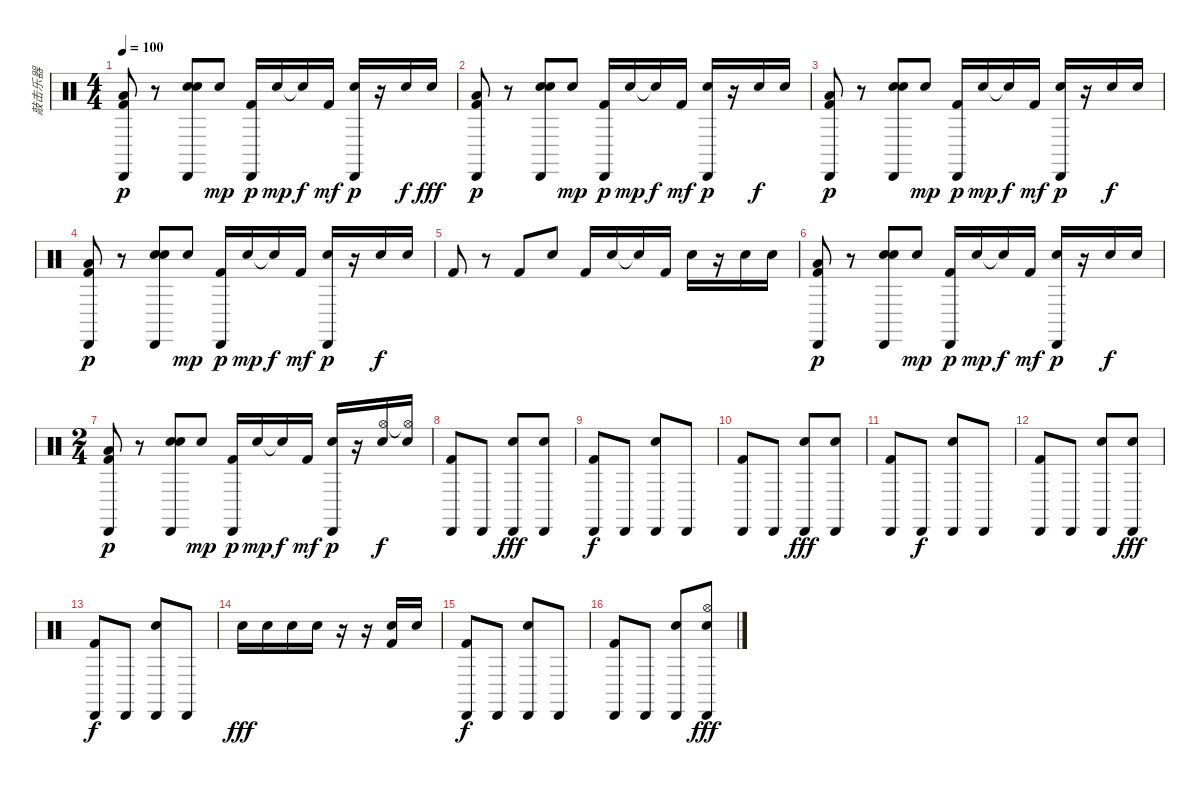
\track ("敲击乐器" "敲击乐器") {instrument percussion}
\staff {score}
\articulation defaults
\ts (4 4)
\tempo 100
\clef neutral
\ks c
("Kick (hit) 2" "Low Floor Tom (hit)" "Cabasa (hit)").8{dy p} r.8 ("Snare (hit) 2" "Electric Snare (hit)" "Cabasa (hit)").8 "Snare (hit) 2".8{dy mp} ("Kick (hit) 2" "Cabasa (hit)").16{dy p} "Snare (hit) 2".16{dy mp} "Snare (hit) 2"{t}.16{dy f} "Kick (hit) 2".16{dy mf} ("Snare (hit) 2" "Cabasa (hit)").16{dy p} r.16 "Electric Snare (hit)".16{dy f} "Snare (hit) 2".16{dy fff} |
("Kick (hit) 2" "Low Floor Tom (hit)" "Cabasa (hit)").8{dy p} r.8 ("Snare (hit) 2" "Electric Snare (hit)" "Cabasa (hit)").8 "Snare (hit) 2".8{dy mp} ("Kick (hit) 2" "Cabasa (hit)").16{dy p} "Snare (hit) 2".16{dy mp} "Snare (hit) 2"{t}.16{dy f} "Kick (hit) 2".16{dy mf} ("Snare (hit) 2" "Cabasa (hit)").16{dy p} r.16 "Electric Snare (hit)".16{dy f} "Snare (hit) 2".16 |
("Kick (hit) 2" "Low Floor Tom (hit)" "Cabasa (hit)").8{dy p} r.8 ("Snare (hit) 2" "Electric Snare (hit)" "Cabasa (hit)").8 "Snare (hit) 2".8{dy mp} ("Kick (hit) 2" "Cabasa (hit)").16{dy p} "Snare (hit) 2".16{dy mp} "Snare (hit) 2"{t}.16{dy f} "Kick (hit) 2".16{dy mf} ("Snare (hit) 2" "Cabasa (hit)").16{dy p} r.16 "Electric Snare (hit)".16{dy f} "Snare (hit) 2".16 |
("Kick (hit) 2" "Low Floor Tom (hit)" "Cabasa (hit)").8{dy p} r.8 ("Snare (hit) 2" "Electric Snare (hit)" "Cabasa (hit)").8 "Snare (hit) 2".8{dy mp} ("Kick (hit) 2" "Cabasa (hit)").16{dy p} "Snare (hit) 2".16{dy mp} "Snare (hit) 2"{t}.16{dy f} "Kick (hit) 2".16{dy mf} ("Snare (hit) 2" "Cabasa (hit)").16{dy p} r.16 "Electric Snare (hit)".16{dy f} "Snare (hit) 2".16 |
"Kick (hit) 2".8 r.8 "Kick (hit) 2".8 "Snare (hit) 2".8 "Kick (hit) 2".16 "Snare (hit) 2".16 "Snare (hit) 2"{t}.16 "Kick (hit) 2".16 "Snare (hit) 2".16 r.16 "Electric Snare (hit)".16 "Snare (hit) 2".16 |
("Kick (hit) 2" "Low Floor Tom (hit)" "Cabasa (hit)").8{dy p} r.8 ("Snare (hit) 2" "Electric Snare (hit)" "Cabasa (hit)").8 "Snare (hit) 2".8{dy mp} ("Kick (hit) 2" "Cabasa (hit)").16{dy p} "Snare (hit) 2".16{dy mp} "Snare (hit) 2"{t}.16{dy f} "Kick (hit) 2".16{dy mf} ("Snare (hit) 2" "Cabasa (hit)").16{dy p} r.16 "Electric Snare (hit)".16{dy f} "Snare (hit) 2".16 |
\ts (2 4)
("Kick (hit) 2" "Low Floor Tom (hit)" "Cabasa (hit)").8{dy p} r.8 ("Snare (hit) 2" "Electric Snare (hit)" "Cabasa (hit)").8 "Snare (hit) 2".8{dy mp} ("Kick (hit) 2" "Cabasa (hit)").16{dy p} "Snare (hit) 2".16{dy mp} "Snare (hit) 2"{t}.16{dy f} "Kick (hit) 2".16{dy mf} ("Snare (hit) 2" "Cabasa (hit)").16{dy p} r.16 ("Electric Snare (hit)" "Hi-Hat (open)").16{dy f} ("Snare (hit) 2" "Hi-Hat (open)"{t}).16 |
("Cabasa (hit)" "Kick (hit) 2").8 "Cabasa (hit)".8 ("Cabasa (hit)" "Snare (hit) 2").8{dy fff} ("Cabasa (hit)" "Electric Snare (hit)").8 |
("Cabasa (hit)" "Kick (hit) 2").8{dy f} "Cabasa (hit)".8 ("Cabasa (hit)" "Snare (hit) 2").8 "Cabasa (hit)".8 |
("Cabasa (hit)" "Kick (hit) 2").8 "Cabasa (hit)".8 ("Cabasa (hit)" "Snare (hit) 2").8{dy fff} ("Cabasa (hit)" "Electric Snare (hit)").8 |
("Cabasa (hit)" "Kick (hit) 2").8 "Cabasa (hit)".8{dy f} ("Cabasa (hit)" "Snare (hit) 2").8 "Cabasa (hit)".8 |
("Cabasa (hit)" "Kick (hit) 2").8 "Cabasa (hit)".8 ("Cabasa (hit)" "Snare (hit) 2").8 ("Cabasa (hit)" "Electric Snare (hit)").8{dy fff} |
("Cabasa (hit)" "Kick (hit) 2").8{dy f} "Cabasa (hit)".8 ("Cabasa (hit)" "Snare (hit) 2").8 "Cabasa (hit)".8 |
"Snare (hit) 2".16{dy fff} "Snare (hit) 2".16 "Snare (hit) 2".16 "Snare (hit) 2".16 r.16 r.16 ("Snare (hit) 2" "Kick (hit) 2").16 "Snare (hit) 2".16 |
("Cabasa (hit)" "Kick (hit) 2").8{dy f} "Cabasa (hit)".8 ("Cabasa (hit)" "Snare (hit) 2").8 "Cabasa (hit)".8 |
("Cabasa (hit)" "Kick (hit) 2").8 "Cabasa (hit)".8 ("Cabasa (hit)" "Snare (hit) 2").8 ("Cabasa (hit)" "Electric Snare (hit)" "Hi-Hat (open)").8{dy fff}
